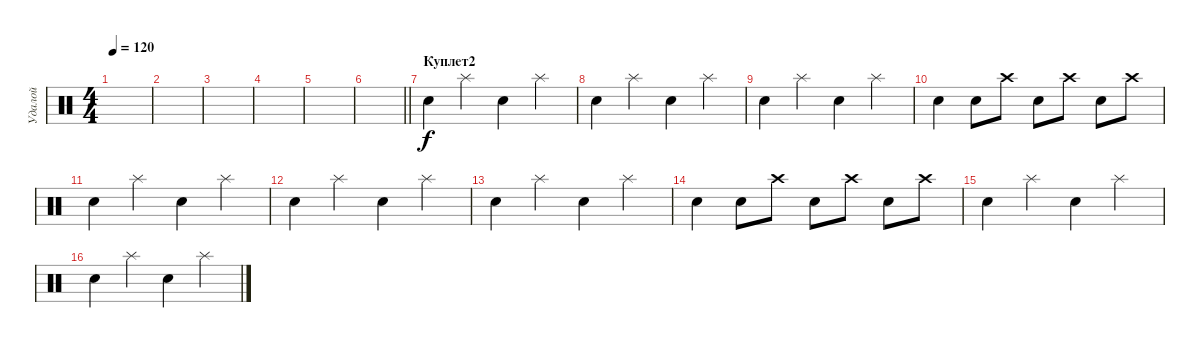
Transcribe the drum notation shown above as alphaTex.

\track ("Удалой" "Удалой") {instrument percussion}
\staff {score}
\articulation defaults
\ts (4 4)
\tempo 120
\clef neutral
\ks c
|
|
|
|
|
\barLineRight lightlight
|
\section ("" "Куплет2")
"Snare (hit) 2".4 "Splash (hit)".4 "Snare (hit) 2".4 "Splash (hit)".4 |
"Snare (hit) 2".4 "Splash (hit)".4 "Snare (hit) 2".4 "Splash (hit)".4 |
"Snare (hit) 2".4 "Splash (hit)".4 "Snare (hit) 2".4 "Splash (hit)".4 |
"Snare (hit) 2".4 "Snare (hit) 2".8 "Crash high (hit)".8 "Snare (hit) 2".8 "Crash high (hit)".8 "Snare (hit) 2".8 "Crash high (hit)".8 |
"Snare (hit) 2".4 "Splash (hit)".4 "Snare (hit) 2".4 "Splash (hit)".4 |
"Snare (hit) 2".4 "Splash (hit)".4 "Snare (hit) 2".4 "Splash (hit)".4 |
"Snare (hit) 2".4 "Splash (hit)".4 "Snare (hit) 2".4 "Splash (hit)".4 |
"Snare (hit) 2".4 "Snare (hit) 2".8 "Crash high (hit)".8 "Snare (hit) 2".8 "Crash high (hit)".8 "Snare (hit) 2".8 "Crash high (hit)".8 |
"Snare (hit) 2".4 "Splash (hit)".4 "Snare (hit) 2".4 "Splash (hit)".4 |
"Snare (hit) 2".4 "Splash (hit)".4 "Snare (hit) 2".4 "Splash (hit)".4
